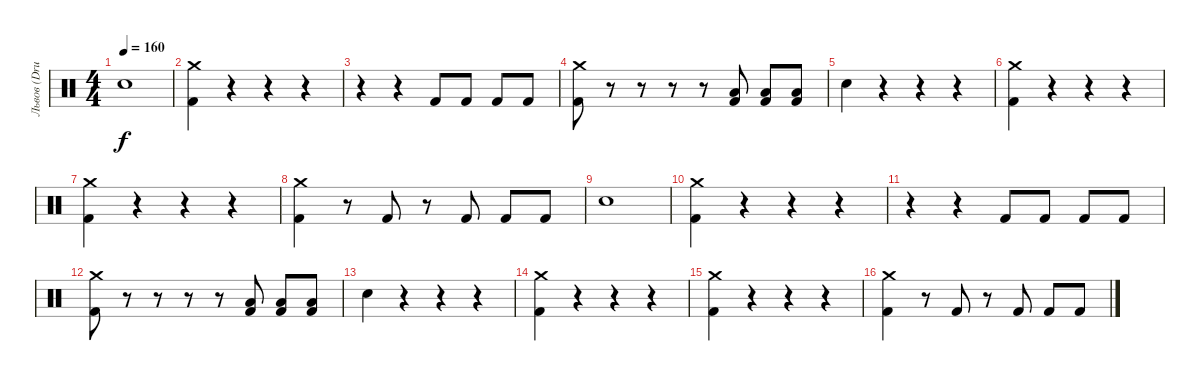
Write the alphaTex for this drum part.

\track ("Львов (Drums)" "Львов (Dru") {instrument percussion}
\staff {score}
\articulation defaults
\ts (4 4)
\tempo 160
\clef neutral
\ks c "Snare (hit) 2".1{dy f}
|
("Kick (hit) 2" "Crash medium (hit)").4 r.4 r.4 r.4 |
r.4 r.4 "Kick (hit) 2".8 "Kick (hit) 2".8 "Kick (hit) 2".8 "Kick (hit) 2".8 |
("Kick (hit) 2" "Crash medium (hit)").8 r.8 r.8 r.8 r.8 ("Kick (hit) 2" "Low Floor Tom (hit)").8 ("Kick (hit) 2" "Low Floor Tom (hit)").8 ("Kick (hit) 2" "Low Floor Tom (hit)").8 |
"Snare (hit) 2".4 r.4 r.4 r.4 |
("Kick (hit) 2" "Crash medium (hit)").4 r.4 r.4 r.4 |
("Kick (hit) 2" "Crash medium (hit)").4 r.4 r.4 r.4 |
("Kick (hit) 2" "Crash medium (hit)").4 r.8 "Kick (hit) 2".8 r.8 "Kick (hit) 2".8 "Kick (hit) 2".8 "Kick (hit) 2".8 |
"Snare (hit) 2".1 |
("Kick (hit) 2" "Crash medium (hit)").4 r.4 r.4 r.4 |
r.4 r.4 "Kick (hit) 2".8 "Kick (hit) 2".8 "Kick (hit) 2".8 "Kick (hit) 2".8 |
("Kick (hit) 2" "Crash medium (hit)").8 r.8 r.8 r.8 r.8 ("Kick (hit) 2" "Low Floor Tom (hit)").8 ("Kick (hit) 2" "Low Floor Tom (hit)").8 ("Kick (hit) 2" "Low Floor Tom (hit)").8 |
"Snare (hit) 2".4 r.4 r.4 r.4 |
("Kick (hit) 2" "Crash medium (hit)").4 r.4 r.4 r.4 |
("Kick (hit) 2" "Crash medium (hit)").4 r.4 r.4 r.4 |
("Kick (hit) 2" "Crash medium (hit)").4 r.8 "Kick (hit) 2".8 r.8 "Kick (hit) 2".8 "Kick (hit) 2".8 "Kick (hit) 2".8
